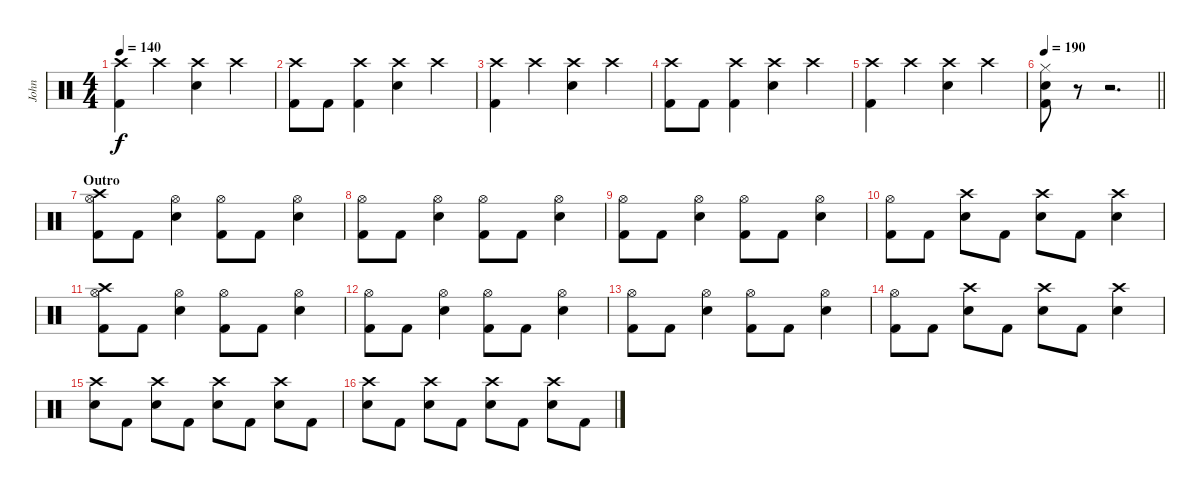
\track ("John" "John") {instrument percussion}
\staff {score}
\articulation defaults
\ts (4 4)
\tempo 140
\clef neutral
\ks c
("Crash high (hit)" "Kick (hit) 2").4{dy f} "Crash high (hit)".4 ("Crash high (hit)" "Electric Snare (hit)").4 "Crash high (hit)".4 |
("Crash high (hit)" "Kick (hit) 2").8 "Kick (hit) 2".8 ("Crash high (hit)" "Kick (hit) 2").4 ("Crash high (hit)" "Electric Snare (hit)").4 "Crash high (hit)".4 |
("Crash high (hit)" "Kick (hit) 2").4 "Crash high (hit)".4 ("Crash high (hit)" "Electric Snare (hit)").4 "Crash high (hit)".4 |
("Crash high (hit)" "Kick (hit) 2").8 "Kick (hit) 2".8 ("Crash high (hit)" "Kick (hit) 2").4 ("Crash high (hit)" "Electric Snare (hit)").4 "Crash high (hit)".4 |
("Crash high (hit)" "Kick (hit) 2").4 "Crash high (hit)".4 ("Crash high (hit)" "Electric Snare (hit)").4 "Crash high (hit)".4 |
\tempo 190
\barLineRight lightlight
("Hi-Hat (closed)" "Electric Snare (hit)" "Kick (hit) 2").8 r.8 r.2{d} |
\section ("" "Outro")
("Crash high (hit)" "Hi-Hat (open)" "Kick (hit) 2").8 "Kick (hit) 2".8 ("Hi-Hat (open)" "Electric Snare (hit)").4 ("Hi-Hat (open)" "Kick (hit) 2").8 "Kick (hit) 2".8 ("Hi-Hat (open)" "Electric Snare (hit)").4 |
("Hi-Hat (open)" "Kick (hit) 2").8 "Kick (hit) 2".8 ("Hi-Hat (open)" "Electric Snare (hit)").4 ("Hi-Hat (open)" "Kick (hit) 2").8 "Kick (hit) 2".8 ("Hi-Hat (open)" "Electric Snare (hit)").4 |
("Hi-Hat (open)" "Kick (hit) 2").8 "Kick (hit) 2".8 ("Hi-Hat (open)" "Electric Snare (hit)").4 ("Hi-Hat (open)" "Kick (hit) 2").8 "Kick (hit) 2".8 ("Hi-Hat (open)" "Electric Snare (hit)").4 |
("Hi-Hat (open)" "Kick (hit) 2").8 "Kick (hit) 2".8 ("Crash high (hit)" "Electric Snare (hit)").8 "Kick (hit) 2".8 ("Crash high (hit)" "Electric Snare (hit)").8 "Kick (hit) 2".8 ("Crash high (hit)" "Electric Snare (hit)").4 |
("Crash high (hit)" "Hi-Hat (open)" "Kick (hit) 2").8 "Kick (hit) 2".8 ("Hi-Hat (open)" "Electric Snare (hit)").4 ("Hi-Hat (open)" "Kick (hit) 2").8 "Kick (hit) 2".8 ("Hi-Hat (open)" "Electric Snare (hit)").4 |
("Hi-Hat (open)" "Kick (hit) 2").8 "Kick (hit) 2".8 ("Hi-Hat (open)" "Electric Snare (hit)").4 ("Hi-Hat (open)" "Kick (hit) 2").8 "Kick (hit) 2".8 ("Hi-Hat (open)" "Electric Snare (hit)").4 |
("Hi-Hat (open)" "Kick (hit) 2").8 "Kick (hit) 2".8 ("Hi-Hat (open)" "Electric Snare (hit)").4 ("Hi-Hat (open)" "Kick (hit) 2").8 "Kick (hit) 2".8 ("Hi-Hat (open)" "Electric Snare (hit)").4 |
("Hi-Hat (open)" "Kick (hit) 2").8 "Kick (hit) 2".8 ("Crash high (hit)" "Electric Snare (hit)").8 "Kick (hit) 2".8 ("Crash high (hit)" "Electric Snare (hit)").8 "Kick (hit) 2".8 ("Crash high (hit)" "Electric Snare (hit)").4 |
("Crash high (hit)" "Electric Snare (hit)").8 "Kick (hit) 2".8 ("Crash high (hit)" "Electric Snare (hit)").8 "Kick (hit) 2".8 ("Crash high (hit)" "Electric Snare (hit)").8 "Kick (hit) 2".8 ("Crash high (hit)" "Electric Snare (hit)").8 "Kick (hit) 2".8 |
("Crash high (hit)" "Electric Snare (hit)").8 "Kick (hit) 2".8 ("Crash high (hit)" "Electric Snare (hit)").8 "Kick (hit) 2".8 ("Crash high (hit)" "Electric Snare (hit)").8 "Kick (hit) 2".8 ("Crash high (hit)" "Electric Snare (hit)").8 "Kick (hit) 2".8
